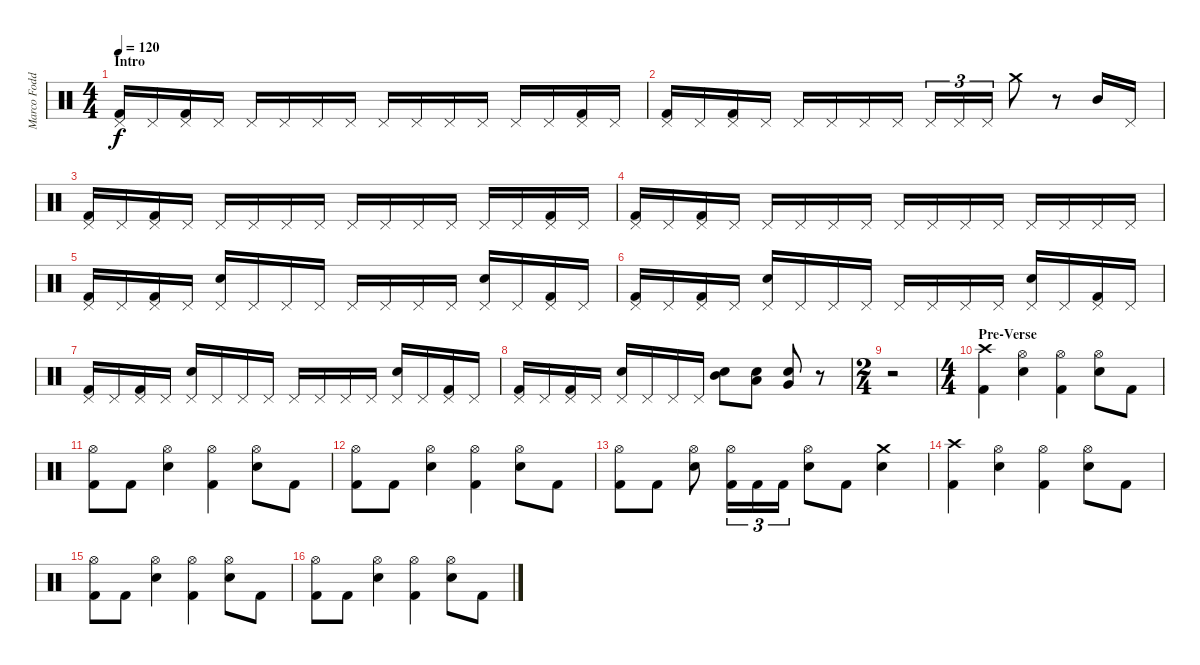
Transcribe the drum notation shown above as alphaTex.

\track ("Marco Foddis " "Marco Fodd") {instrument percussion}
\staff {score}
\articulation defaults
\ts (4 4)
\section ("" "Intro")
\tempo 120
\tempo 143
\tempo 120
\clef neutral
\ks c
("Pedal Hi-Hat (hit)" "Kick (hit) 2").16{dy f} "Pedal Hi-Hat (hit)".16 ("Pedal Hi-Hat (hit)" "Kick (hit) 2").16 "Pedal Hi-Hat (hit)".16 "Pedal Hi-Hat (hit)".16 "Pedal Hi-Hat (hit)".16 "Pedal Hi-Hat (hit)".16 "Pedal Hi-Hat (hit)".16 "Pedal Hi-Hat (hit)".16 "Pedal Hi-Hat (hit)".16 "Pedal Hi-Hat (hit)".16 "Pedal Hi-Hat (hit)".16 "Pedal Hi-Hat (hit)".16 "Pedal Hi-Hat (hit)".16 ("Pedal Hi-Hat (hit)" "Kick (hit) 2").16 "Pedal Hi-Hat (hit)".16 |
("Pedal Hi-Hat (hit)" "Kick (hit) 2").16 "Pedal Hi-Hat (hit)".16 ("Pedal Hi-Hat (hit)" "Kick (hit) 2").16 "Pedal Hi-Hat (hit)".16 "Pedal Hi-Hat (hit)".16 "Pedal Hi-Hat (hit)".16 "Pedal Hi-Hat (hit)".16 "Pedal Hi-Hat (hit)".16 "Pedal Hi-Hat (hit)".16{tu (3 2)} "Pedal Hi-Hat (hit)".16{tu (3 2)} "Pedal Hi-Hat (hit)".16{tu (3 2)} "Crash medium (hit)".8 r.8 "Mid Tom (hit)".16 "Pedal Hi-Hat (hit)".16 |
("Pedal Hi-Hat (hit)" "Kick (hit) 2").16 "Pedal Hi-Hat (hit)".16 ("Pedal Hi-Hat (hit)" "Kick (hit) 2").16 "Pedal Hi-Hat (hit)".16 "Pedal Hi-Hat (hit)".16 "Pedal Hi-Hat (hit)".16 "Pedal Hi-Hat (hit)".16 "Pedal Hi-Hat (hit)".16 "Pedal Hi-Hat (hit)".16 "Pedal Hi-Hat (hit)".16 "Pedal Hi-Hat (hit)".16 "Pedal Hi-Hat (hit)".16 "Pedal Hi-Hat (hit)".16 "Pedal Hi-Hat (hit)".16 ("Pedal Hi-Hat (hit)" "Kick (hit) 2").16 "Pedal Hi-Hat (hit)".16 |
("Pedal Hi-Hat (hit)" "Kick (hit) 2").16 "Pedal Hi-Hat (hit)".16 ("Pedal Hi-Hat (hit)" "Kick (hit) 2").16 "Pedal Hi-Hat (hit)".16 "Pedal Hi-Hat (hit)".16 "Pedal Hi-Hat (hit)".16 "Pedal Hi-Hat (hit)".16 "Pedal Hi-Hat (hit)".16 "Pedal Hi-Hat (hit)".16 "Pedal Hi-Hat (hit)".16 "Pedal Hi-Hat (hit)".16 "Pedal Hi-Hat (hit)".16 "Pedal Hi-Hat (hit)".16 "Pedal Hi-Hat (hit)".16 "Pedal Hi-Hat (hit)".16 "Pedal Hi-Hat (hit)".16 |
("Pedal Hi-Hat (hit)" "Kick (hit) 2").16 "Pedal Hi-Hat (hit)".16 ("Pedal Hi-Hat (hit)" "Kick (hit) 2").16 "Pedal Hi-Hat (hit)".16 ("Pedal Hi-Hat (hit)" "Electric Snare (hit)").16 "Pedal Hi-Hat (hit)".16 "Pedal Hi-Hat (hit)".16 "Pedal Hi-Hat (hit)".16 "Pedal Hi-Hat (hit)".16 "Pedal Hi-Hat (hit)".16 "Pedal Hi-Hat (hit)".16 "Pedal Hi-Hat (hit)".16 ("Pedal Hi-Hat (hit)" "Electric Snare (hit)").16 "Pedal Hi-Hat (hit)".16 ("Pedal Hi-Hat (hit)" "Kick (hit) 2").16 "Pedal Hi-Hat (hit)".16 |
("Pedal Hi-Hat (hit)" "Kick (hit) 2").16 "Pedal Hi-Hat (hit)".16 ("Pedal Hi-Hat (hit)" "Kick (hit) 2").16 "Pedal Hi-Hat (hit)".16 ("Pedal Hi-Hat (hit)" "Electric Snare (hit)").16 "Pedal Hi-Hat (hit)".16 "Pedal Hi-Hat (hit)".16 "Pedal Hi-Hat (hit)".16 "Pedal Hi-Hat (hit)".16 "Pedal Hi-Hat (hit)".16 "Pedal Hi-Hat (hit)".16 "Pedal Hi-Hat (hit)".16 ("Pedal Hi-Hat (hit)" "Electric Snare (hit)").16 "Pedal Hi-Hat (hit)".16 ("Pedal Hi-Hat (hit)" "Kick (hit) 2").16 "Pedal Hi-Hat (hit)".16 |
("Pedal Hi-Hat (hit)" "Kick (hit) 2").16 "Pedal Hi-Hat (hit)".16 ("Pedal Hi-Hat (hit)" "Kick (hit) 2").16 "Pedal Hi-Hat (hit)".16 ("Pedal Hi-Hat (hit)" "Electric Snare (hit)").16 "Pedal Hi-Hat (hit)".16 "Pedal Hi-Hat (hit)".16 "Pedal Hi-Hat (hit)".16 "Pedal Hi-Hat (hit)".16 "Pedal Hi-Hat (hit)".16 "Pedal Hi-Hat (hit)".16 "Pedal Hi-Hat (hit)".16 ("Pedal Hi-Hat (hit)" "Electric Snare (hit)").16 "Pedal Hi-Hat (hit)".16 ("Pedal Hi-Hat (hit)" "Kick (hit) 2").16 "Pedal Hi-Hat (hit)".16 |
("Pedal Hi-Hat (hit)" "Kick (hit) 2").16 "Pedal Hi-Hat (hit)".16 ("Pedal Hi-Hat (hit)" "Kick (hit) 2").16 "Pedal Hi-Hat (hit)".16 ("Pedal Hi-Hat (hit)" "Electric Snare (hit)").16 "Pedal Hi-Hat (hit)".16 "Pedal Hi-Hat (hit)".16 "Pedal Hi-Hat (hit)".16 ("Mid Tom (hit)" "Electric Snare (hit)").8 ("Low Tom (hit)" "Electric Snare (hit)").8 ("Very Low Tom (hit)" "Electric Snare (hit)").8 r.8 |
\ts (2 4)
r.2 |
\ts (4 4)
\section ("" "Pre-Verse")
("Crash high (hit)" "Kick (hit) 2").4 ("Hi-Hat (open)" "Electric Snare (hit)").4 ("Hi-Hat (open)" "Kick (hit) 2").4 ("Hi-Hat (open)" "Electric Snare (hit)").8 "Kick (hit) 2".8 |
("Hi-Hat (open)" "Kick (hit) 2").8 "Kick (hit) 2".8 ("Hi-Hat (open)" "Electric Snare (hit)").4 ("Hi-Hat (open)" "Kick (hit) 2").4 ("Hi-Hat (open)" "Electric Snare (hit)").8 "Kick (hit) 2".8 |
("Hi-Hat (open)" "Kick (hit) 2").8 "Kick (hit) 2".8 ("Hi-Hat (open)" "Electric Snare (hit)").4 ("Hi-Hat (open)" "Kick (hit) 2").4 ("Hi-Hat (open)" "Electric Snare (hit)").8 "Kick (hit) 2".8 |
("Hi-Hat (open)" "Kick (hit) 2").8 "Kick (hit) 2".8 ("Hi-Hat (open)" "Electric Snare (hit)").8 ("Hi-Hat (open)" "Kick (hit) 2").16{tu (3 2)} "Kick (hit) 2".16{tu (3 2)} "Kick (hit) 2".16{tu (3 2)} ("Hi-Hat (open)" "Electric Snare (hit)").8 "Kick (hit) 2".8 ("Crash medium (hit)" "Electric Snare (hit)").4 |
("Crash high (hit)" "Kick (hit) 2").4 ("Hi-Hat (open)" "Electric Snare (hit)").4 ("Hi-Hat (open)" "Kick (hit) 2").4 ("Hi-Hat (open)" "Electric Snare (hit)").8 "Kick (hit) 2".8 |
("Hi-Hat (open)" "Kick (hit) 2").8 "Kick (hit) 2".8 ("Hi-Hat (open)" "Electric Snare (hit)").4 ("Hi-Hat (open)" "Kick (hit) 2").4 ("Hi-Hat (open)" "Electric Snare (hit)").8 "Kick (hit) 2".8 |
("Hi-Hat (open)" "Kick (hit) 2").8 "Kick (hit) 2".8 ("Hi-Hat (open)" "Electric Snare (hit)").4 ("Hi-Hat (open)" "Kick (hit) 2").4 ("Hi-Hat (open)" "Electric Snare (hit)").8 "Kick (hit) 2".8
